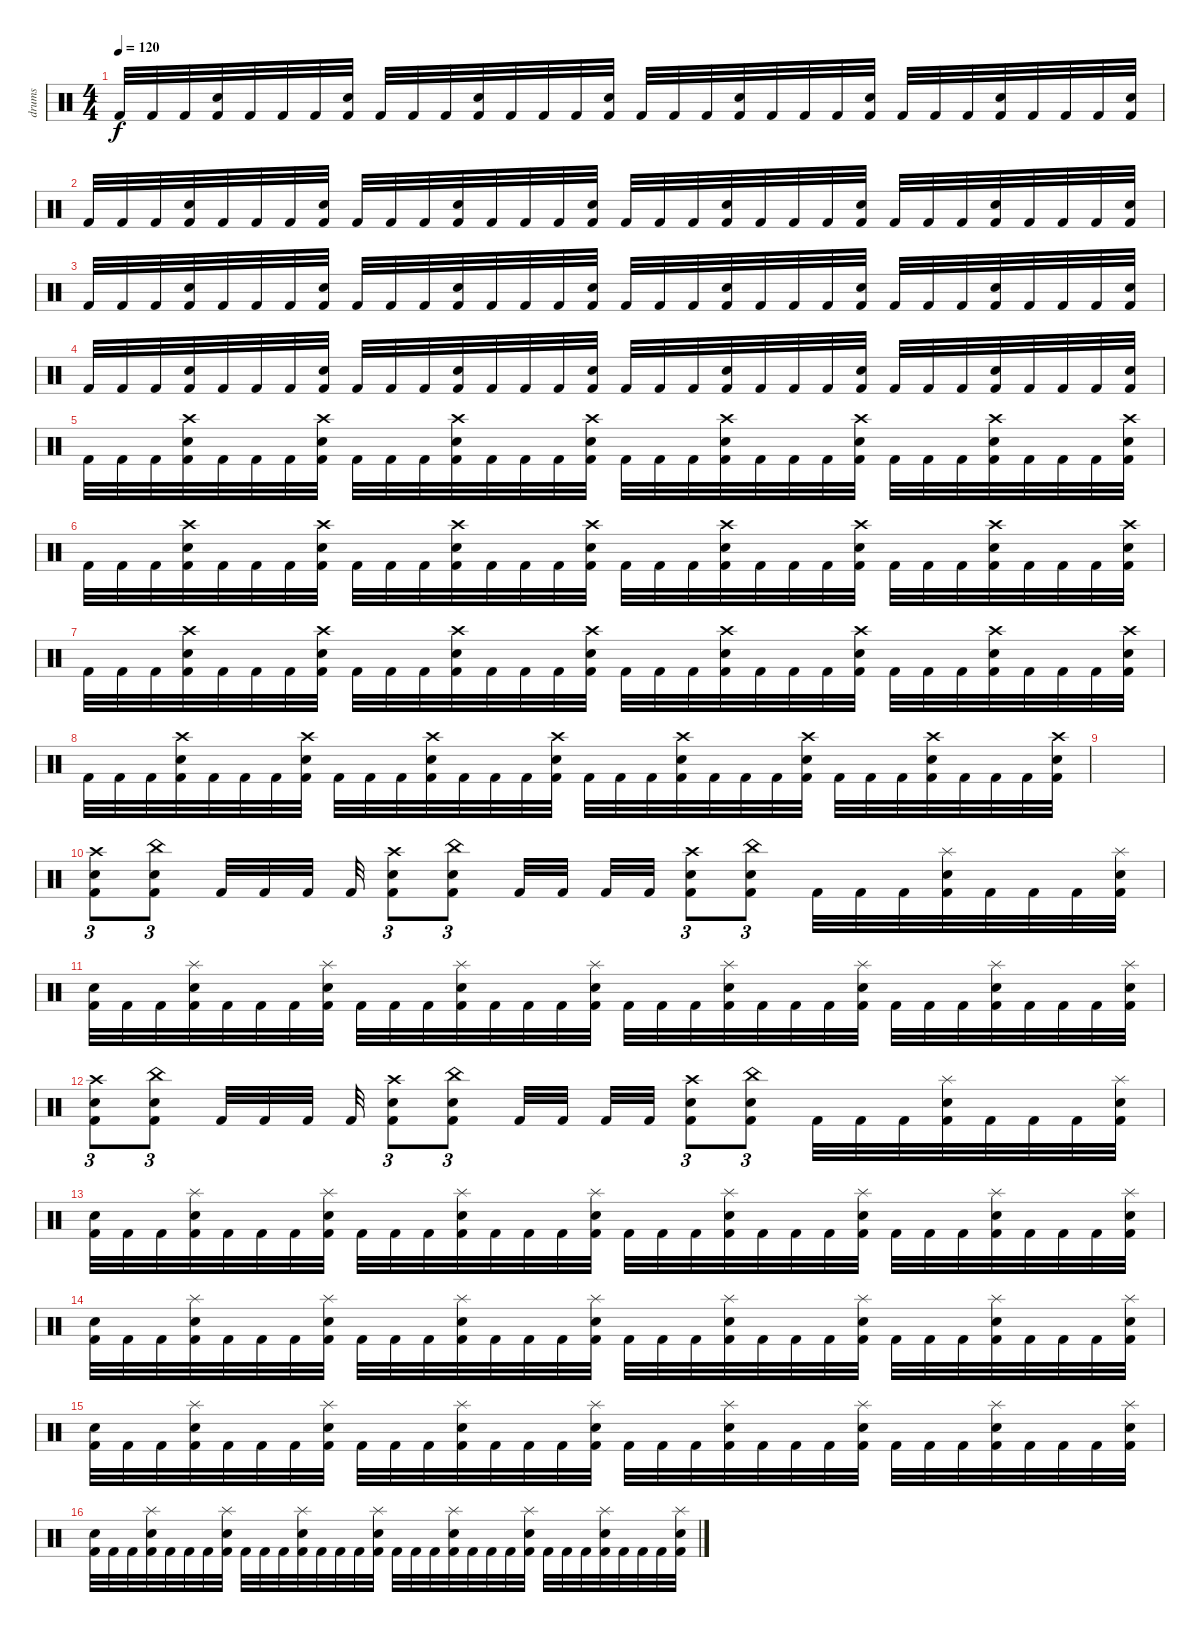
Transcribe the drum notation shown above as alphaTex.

\track ("drums" "drums") {instrument percussion}
\staff {score}
\articulation defaults
\ts (4 4)
\tempo 120
\clef neutral
\ks c "Kick (hit) 2".32{dy f} "Kick (hit) 2".32 "Kick (hit) 2".32
("Electric Snare (hit)" "Kick (hit) 2").32 "Kick (hit) 2".32 "Kick (hit) 2".32 "Kick (hit) 2".32 ("Electric Snare (hit)" "Kick (hit) 2").32 "Kick (hit) 2".32 "Kick (hit) 2".32 "Kick (hit) 2".32 ("Electric Snare (hit)" "Kick (hit) 2").32 "Kick (hit) 2".32 "Kick (hit) 2".32 "Kick (hit) 2".32 ("Electric Snare (hit)" "Kick (hit) 2").32 "Kick (hit) 2".32 "Kick (hit) 2".32 "Kick (hit) 2".32 ("Electric Snare (hit)" "Kick (hit) 2").32 "Kick (hit) 2".32 "Kick (hit) 2".32 "Kick (hit) 2".32 ("Electric Snare (hit)" "Kick (hit) 2").32 "Kick (hit) 2".32 "Kick (hit) 2".32 "Kick (hit) 2".32 ("Electric Snare (hit)" "Kick (hit) 2").32 "Kick (hit) 2".32 "Kick (hit) 2".32 "Kick (hit) 2".32 ("Electric Snare (hit)" "Kick (hit) 2").32 |
"Kick (hit) 2".32 "Kick (hit) 2".32 "Kick (hit) 2".32 ("Electric Snare (hit)" "Kick (hit) 2").32 "Kick (hit) 2".32 "Kick (hit) 2".32 "Kick (hit) 2".32 ("Electric Snare (hit)" "Kick (hit) 2").32 "Kick (hit) 2".32 "Kick (hit) 2".32 "Kick (hit) 2".32 ("Electric Snare (hit)" "Kick (hit) 2").32 "Kick (hit) 2".32 "Kick (hit) 2".32 "Kick (hit) 2".32 ("Electric Snare (hit)" "Kick (hit) 2").32 "Kick (hit) 2".32 "Kick (hit) 2".32 "Kick (hit) 2".32 ("Electric Snare (hit)" "Kick (hit) 2").32 "Kick (hit) 2".32 "Kick (hit) 2".32 "Kick (hit) 2".32 ("Electric Snare (hit)" "Kick (hit) 2").32 "Kick (hit) 2".32 "Kick (hit) 2".32 "Kick (hit) 2".32 ("Electric Snare (hit)" "Kick (hit) 2").32 "Kick (hit) 2".32 "Kick (hit) 2".32 "Kick (hit) 2".32 ("Electric Snare (hit)" "Kick (hit) 2").32 |
"Kick (hit) 2".32 "Kick (hit) 2".32 "Kick (hit) 2".32 ("Electric Snare (hit)" "Kick (hit) 2").32 "Kick (hit) 2".32 "Kick (hit) 2".32 "Kick (hit) 2".32 ("Electric Snare (hit)" "Kick (hit) 2").32 "Kick (hit) 2".32 "Kick (hit) 2".32 "Kick (hit) 2".32 ("Electric Snare (hit)" "Kick (hit) 2").32 "Kick (hit) 2".32 "Kick (hit) 2".32 "Kick (hit) 2".32 ("Electric Snare (hit)" "Kick (hit) 2").32 "Kick (hit) 2".32 "Kick (hit) 2".32 "Kick (hit) 2".32 ("Electric Snare (hit)" "Kick (hit) 2").32 "Kick (hit) 2".32 "Kick (hit) 2".32 "Kick (hit) 2".32 ("Electric Snare (hit)" "Kick (hit) 2").32 "Kick (hit) 2".32 "Kick (hit) 2".32 "Kick (hit) 2".32 ("Electric Snare (hit)" "Kick (hit) 2").32 "Kick (hit) 2".32 "Kick (hit) 2".32 "Kick (hit) 2".32 ("Electric Snare (hit)" "Kick (hit) 2").32 |
"Kick (hit) 2".32 "Kick (hit) 2".32 "Kick (hit) 2".32 ("Electric Snare (hit)" "Kick (hit) 2").32 "Kick (hit) 2".32 "Kick (hit) 2".32 "Kick (hit) 2".32 ("Electric Snare (hit)" "Kick (hit) 2").32 "Kick (hit) 2".32 "Kick (hit) 2".32 "Kick (hit) 2".32 ("Electric Snare (hit)" "Kick (hit) 2").32 "Kick (hit) 2".32 "Kick (hit) 2".32 "Kick (hit) 2".32 ("Electric Snare (hit)" "Kick (hit) 2").32 "Kick (hit) 2".32 "Kick (hit) 2".32 "Kick (hit) 2".32 ("Electric Snare (hit)" "Kick (hit) 2").32 "Kick (hit) 2".32 "Kick (hit) 2".32 "Kick (hit) 2".32 ("Electric Snare (hit)" "Kick (hit) 2").32 "Kick (hit) 2".32 "Kick (hit) 2".32 "Kick (hit) 2".32 ("Electric Snare (hit)" "Kick (hit) 2").32 "Kick (hit) 2".32 "Kick (hit) 2".32 "Kick (hit) 2".32 ("Electric Snare (hit)" "Kick (hit) 2").32 |
"Kick (hit) 2".32 "Kick (hit) 2".32 "Kick (hit) 2".32 ("Crash high (hit)" "Electric Snare (hit)" "Kick (hit) 2").32 "Kick (hit) 2".32 "Kick (hit) 2".32 "Kick (hit) 2".32 ("Crash high (hit)" "Electric Snare (hit)" "Kick (hit) 2").32 "Kick (hit) 2".32 "Kick (hit) 2".32 "Kick (hit) 2".32 ("Crash high (hit)" "Electric Snare (hit)" "Kick (hit) 2").32 "Kick (hit) 2".32 "Kick (hit) 2".32 "Kick (hit) 2".32 ("Crash high (hit)" "Electric Snare (hit)" "Kick (hit) 2").32 "Kick (hit) 2".32 "Kick (hit) 2".32 "Kick (hit) 2".32 ("Crash high (hit)" "Electric Snare (hit)" "Kick (hit) 2").32 "Kick (hit) 2".32 "Kick (hit) 2".32 "Kick (hit) 2".32 ("Crash high (hit)" "Electric Snare (hit)" "Kick (hit) 2").32 "Kick (hit) 2".32 "Kick (hit) 2".32 "Kick (hit) 2".32 ("Crash high (hit)" "Electric Snare (hit)" "Kick (hit) 2").32 "Kick (hit) 2".32 "Kick (hit) 2".32 "Kick (hit) 2".32 ("Crash high (hit)" "Electric Snare (hit)" "Kick (hit) 2").32 |
"Kick (hit) 2".32 "Kick (hit) 2".32 "Kick (hit) 2".32 ("Crash high (hit)" "Electric Snare (hit)" "Kick (hit) 2").32 "Kick (hit) 2".32 "Kick (hit) 2".32 "Kick (hit) 2".32 ("Crash high (hit)" "Electric Snare (hit)" "Kick (hit) 2").32 "Kick (hit) 2".32 "Kick (hit) 2".32 "Kick (hit) 2".32 ("Crash high (hit)" "Electric Snare (hit)" "Kick (hit) 2").32 "Kick (hit) 2".32 "Kick (hit) 2".32 "Kick (hit) 2".32 ("Crash high (hit)" "Electric Snare (hit)" "Kick (hit) 2").32 "Kick (hit) 2".32 "Kick (hit) 2".32 "Kick (hit) 2".32 ("Crash high (hit)" "Electric Snare (hit)" "Kick (hit) 2").32 "Kick (hit) 2".32 "Kick (hit) 2".32 "Kick (hit) 2".32 ("Crash high (hit)" "Electric Snare (hit)" "Kick (hit) 2").32 "Kick (hit) 2".32 "Kick (hit) 2".32 "Kick (hit) 2".32 ("Crash high (hit)" "Electric Snare (hit)" "Kick (hit) 2").32 "Kick (hit) 2".32 "Kick (hit) 2".32 "Kick (hit) 2".32 ("Crash high (hit)" "Electric Snare (hit)" "Kick (hit) 2").32 |
"Kick (hit) 2".32 "Kick (hit) 2".32 "Kick (hit) 2".32 ("Crash high (hit)" "Electric Snare (hit)" "Kick (hit) 2").32 "Kick (hit) 2".32 "Kick (hit) 2".32 "Kick (hit) 2".32 ("Crash high (hit)" "Electric Snare (hit)" "Kick (hit) 2").32 "Kick (hit) 2".32 "Kick (hit) 2".32 "Kick (hit) 2".32 ("Crash high (hit)" "Electric Snare (hit)" "Kick (hit) 2").32 "Kick (hit) 2".32 "Kick (hit) 2".32 "Kick (hit) 2".32 ("Crash high (hit)" "Electric Snare (hit)" "Kick (hit) 2").32 "Kick (hit) 2".32 "Kick (hit) 2".32 "Kick (hit) 2".32 ("Crash high (hit)" "Electric Snare (hit)" "Kick (hit) 2").32 "Kick (hit) 2".32 "Kick (hit) 2".32 "Kick (hit) 2".32 ("Crash high (hit)" "Electric Snare (hit)" "Kick (hit) 2").32 "Kick (hit) 2".32 "Kick (hit) 2".32 "Kick (hit) 2".32 ("Crash high (hit)" "Electric Snare (hit)" "Kick (hit) 2").32 "Kick (hit) 2".32 "Kick (hit) 2".32 "Kick (hit) 2".32 ("Crash high (hit)" "Electric Snare (hit)" "Kick (hit) 2").32 |
"Kick (hit) 2".32 "Kick (hit) 2".32 "Kick (hit) 2".32 ("Crash high (hit)" "Electric Snare (hit)" "Kick (hit) 2").32 "Kick (hit) 2".32 "Kick (hit) 2".32 "Kick (hit) 2".32 ("Crash high (hit)" "Electric Snare (hit)" "Kick (hit) 2").32 "Kick (hit) 2".32 "Kick (hit) 2".32 "Kick (hit) 2".32 ("Crash high (hit)" "Electric Snare (hit)" "Kick (hit) 2").32 "Kick (hit) 2".32 "Kick (hit) 2".32 "Kick (hit) 2".32 ("Crash high (hit)" "Electric Snare (hit)" "Kick (hit) 2").32 "Kick (hit) 2".32 "Kick (hit) 2".32 "Kick (hit) 2".32 ("Crash high (hit)" "Electric Snare (hit)" "Kick (hit) 2").32 "Kick (hit) 2".32 "Kick (hit) 2".32 "Kick (hit) 2".32 ("Crash high (hit)" "Electric Snare (hit)" "Kick (hit) 2").32 "Kick (hit) 2".32 "Kick (hit) 2".32 "Kick (hit) 2".32 ("Crash high (hit)" "Electric Snare (hit)" "Kick (hit) 2").32 "Kick (hit) 2".32 "Kick (hit) 2".32 "Kick (hit) 2".32 ("Crash high (hit)" "Electric Snare (hit)" "Kick (hit) 2").32 |
|
("Crash high (hit)" "Electric Snare (hit)" "Kick (hit) 2").8{tu (3 2)} ("China (hit)" "Electric Snare (hit)" "Kick (hit) 2").8{tu (3 2)} "Kick (hit) 2".32 "Kick (hit) 2".32 "Kick (hit) 2".32 "Kick (hit) 2".32 ("Crash high (hit)" "Electric Snare (hit)" "Kick (hit) 2").8{tu (3 2)} ("China (hit)" "Electric Snare (hit)" "Kick (hit) 2").8{tu (3 2)} "Kick (hit) 2".32 "Kick (hit) 2".32 "Kick (hit) 2".32 "Kick (hit) 2".32 ("Crash high (hit)" "Electric Snare (hit)" "Kick (hit) 2").8{tu (3 2)} ("China (hit)" "Electric Snare (hit)" "Kick (hit) 2").8{tu (3 2)} "Kick (hit) 2".32 "Kick (hit) 2".32 "Kick (hit) 2".32 ("Splash (hit)" "Electric Snare (hit)" "Kick (hit) 2").32 "Kick (hit) 2".32 "Kick (hit) 2".32 "Kick (hit) 2".32 ("Splash (hit)" "Electric Snare (hit)" "Kick (hit) 2").32 |
("Electric Snare (hit)" "Kick (hit) 2").32 "Kick (hit) 2".32 "Kick (hit) 2".32 ("Splash (hit)" "Electric Snare (hit)" "Kick (hit) 2").32 "Kick (hit) 2".32 "Kick (hit) 2".32 "Kick (hit) 2".32 ("Splash (hit)" "Electric Snare (hit)" "Kick (hit) 2").32 "Kick (hit) 2".32 "Kick (hit) 2".32 "Kick (hit) 2".32 ("Splash (hit)" "Electric Snare (hit)" "Kick (hit) 2").32 "Kick (hit) 2".32 "Kick (hit) 2".32 "Kick (hit) 2".32 ("Splash (hit)" "Electric Snare (hit)" "Kick (hit) 2").32 "Kick (hit) 2".32 "Kick (hit) 2".32 "Kick (hit) 2".32 ("Splash (hit)" "Electric Snare (hit)" "Kick (hit) 2").32 "Kick (hit) 2".32 "Kick (hit) 2".32 "Kick (hit) 2".32 ("Splash (hit)" "Electric Snare (hit)" "Kick (hit) 2").32 "Kick (hit) 2".32 "Kick (hit) 2".32 "Kick (hit) 2".32 ("Splash (hit)" "Electric Snare (hit)" "Kick (hit) 2").32 "Kick (hit) 2".32 "Kick (hit) 2".32 "Kick (hit) 2".32 ("Splash (hit)" "Electric Snare (hit)" "Kick (hit) 2").32 |
("Crash high (hit)" "Electric Snare (hit)" "Kick (hit) 2").8{tu (3 2)} ("China (hit)" "Electric Snare (hit)" "Kick (hit) 2").8{tu (3 2)} "Kick (hit) 2".32 "Kick (hit) 2".32 "Kick (hit) 2".32 "Kick (hit) 2".32 ("Crash high (hit)" "Electric Snare (hit)" "Kick (hit) 2").8{tu (3 2)} ("China (hit)" "Electric Snare (hit)" "Kick (hit) 2").8{tu (3 2)} "Kick (hit) 2".32 "Kick (hit) 2".32 "Kick (hit) 2".32 "Kick (hit) 2".32 ("Crash high (hit)" "Electric Snare (hit)" "Kick (hit) 2").8{tu (3 2)} ("China (hit)" "Electric Snare (hit)" "Kick (hit) 2").8{tu (3 2)} "Kick (hit) 2".32 "Kick (hit) 2".32 "Kick (hit) 2".32 ("Splash (hit)" "Electric Snare (hit)" "Kick (hit) 2").32 "Kick (hit) 2".32 "Kick (hit) 2".32 "Kick (hit) 2".32 ("Splash (hit)" "Electric Snare (hit)" "Kick (hit) 2").32 |
("Electric Snare (hit)" "Kick (hit) 2").32 "Kick (hit) 2".32 "Kick (hit) 2".32 ("Splash (hit)" "Electric Snare (hit)" "Kick (hit) 2").32 "Kick (hit) 2".32 "Kick (hit) 2".32 "Kick (hit) 2".32 ("Splash (hit)" "Electric Snare (hit)" "Kick (hit) 2").32 "Kick (hit) 2".32 "Kick (hit) 2".32 "Kick (hit) 2".32 ("Splash (hit)" "Electric Snare (hit)" "Kick (hit) 2").32 "Kick (hit) 2".32 "Kick (hit) 2".32 "Kick (hit) 2".32 ("Splash (hit)" "Electric Snare (hit)" "Kick (hit) 2").32 "Kick (hit) 2".32 "Kick (hit) 2".32 "Kick (hit) 2".32 ("Splash (hit)" "Electric Snare (hit)" "Kick (hit) 2").32 "Kick (hit) 2".32 "Kick (hit) 2".32 "Kick (hit) 2".32 ("Splash (hit)" "Electric Snare (hit)" "Kick (hit) 2").32 "Kick (hit) 2".32 "Kick (hit) 2".32 "Kick (hit) 2".32 ("Splash (hit)" "Electric Snare (hit)" "Kick (hit) 2").32 "Kick (hit) 2".32 "Kick (hit) 2".32 "Kick (hit) 2".32 ("Splash (hit)" "Electric Snare (hit)" "Kick (hit) 2").32 |
("Electric Snare (hit)" "Kick (hit) 2").32 "Kick (hit) 2".32 "Kick (hit) 2".32 ("Splash (hit)" "Electric Snare (hit)" "Kick (hit) 2").32 "Kick (hit) 2".32 "Kick (hit) 2".32 "Kick (hit) 2".32 ("Splash (hit)" "Electric Snare (hit)" "Kick (hit) 2").32 "Kick (hit) 2".32 "Kick (hit) 2".32 "Kick (hit) 2".32 ("Splash (hit)" "Electric Snare (hit)" "Kick (hit) 2").32 "Kick (hit) 2".32 "Kick (hit) 2".32 "Kick (hit) 2".32 ("Splash (hit)" "Electric Snare (hit)" "Kick (hit) 2").32 "Kick (hit) 2".32 "Kick (hit) 2".32 "Kick (hit) 2".32 ("Splash (hit)" "Electric Snare (hit)" "Kick (hit) 2").32 "Kick (hit) 2".32 "Kick (hit) 2".32 "Kick (hit) 2".32 ("Splash (hit)" "Electric Snare (hit)" "Kick (hit) 2").32 "Kick (hit) 2".32 "Kick (hit) 2".32 "Kick (hit) 2".32 ("Splash (hit)" "Electric Snare (hit)" "Kick (hit) 2").32 "Kick (hit) 2".32 "Kick (hit) 2".32 "Kick (hit) 2".32 ("Splash (hit)" "Electric Snare (hit)" "Kick (hit) 2").32 |
("Electric Snare (hit)" "Kick (hit) 2").32 "Kick (hit) 2".32 "Kick (hit) 2".32 ("Splash (hit)" "Electric Snare (hit)" "Kick (hit) 2").32 "Kick (hit) 2".32 "Kick (hit) 2".32 "Kick (hit) 2".32 ("Splash (hit)" "Electric Snare (hit)" "Kick (hit) 2").32 "Kick (hit) 2".32 "Kick (hit) 2".32 "Kick (hit) 2".32 ("Splash (hit)" "Electric Snare (hit)" "Kick (hit) 2").32 "Kick (hit) 2".32 "Kick (hit) 2".32 "Kick (hit) 2".32 ("Splash (hit)" "Electric Snare (hit)" "Kick (hit) 2").32 "Kick (hit) 2".32 "Kick (hit) 2".32 "Kick (hit) 2".32 ("Splash (hit)" "Electric Snare (hit)" "Kick (hit) 2").32 "Kick (hit) 2".32 "Kick (hit) 2".32 "Kick (hit) 2".32 ("Splash (hit)" "Electric Snare (hit)" "Kick (hit) 2").32 "Kick (hit) 2".32 "Kick (hit) 2".32 "Kick (hit) 2".32 ("Splash (hit)" "Electric Snare (hit)" "Kick (hit) 2").32 "Kick (hit) 2".32 "Kick (hit) 2".32 "Kick (hit) 2".32 ("Splash (hit)" "Electric Snare (hit)" "Kick (hit) 2").32 |
("Electric Snare (hit)" "Kick (hit) 2").32 "Kick (hit) 2".32 "Kick (hit) 2".32 ("Splash (hit)" "Electric Snare (hit)" "Kick (hit) 2").32 "Kick (hit) 2".32 "Kick (hit) 2".32 "Kick (hit) 2".32 ("Splash (hit)" "Electric Snare (hit)" "Kick (hit) 2").32 "Kick (hit) 2".32 "Kick (hit) 2".32 "Kick (hit) 2".32 ("Splash (hit)" "Electric Snare (hit)" "Kick (hit) 2").32 "Kick (hit) 2".32 "Kick (hit) 2".32 "Kick (hit) 2".32 ("Splash (hit)" "Electric Snare (hit)" "Kick (hit) 2").32 "Kick (hit) 2".32 "Kick (hit) 2".32 "Kick (hit) 2".32 ("Splash (hit)" "Electric Snare (hit)" "Kick (hit) 2").32 "Kick (hit) 2".32 "Kick (hit) 2".32 "Kick (hit) 2".32 ("Splash (hit)" "Electric Snare (hit)" "Kick (hit) 2").32 "Kick (hit) 2".32 "Kick (hit) 2".32 "Kick (hit) 2".32 ("Splash (hit)" "Electric Snare (hit)" "Kick (hit) 2").32 "Kick (hit) 2".32 "Kick (hit) 2".32 "Kick (hit) 2".32 ("Splash (hit)" "Electric Snare (hit)" "Kick (hit) 2").32
